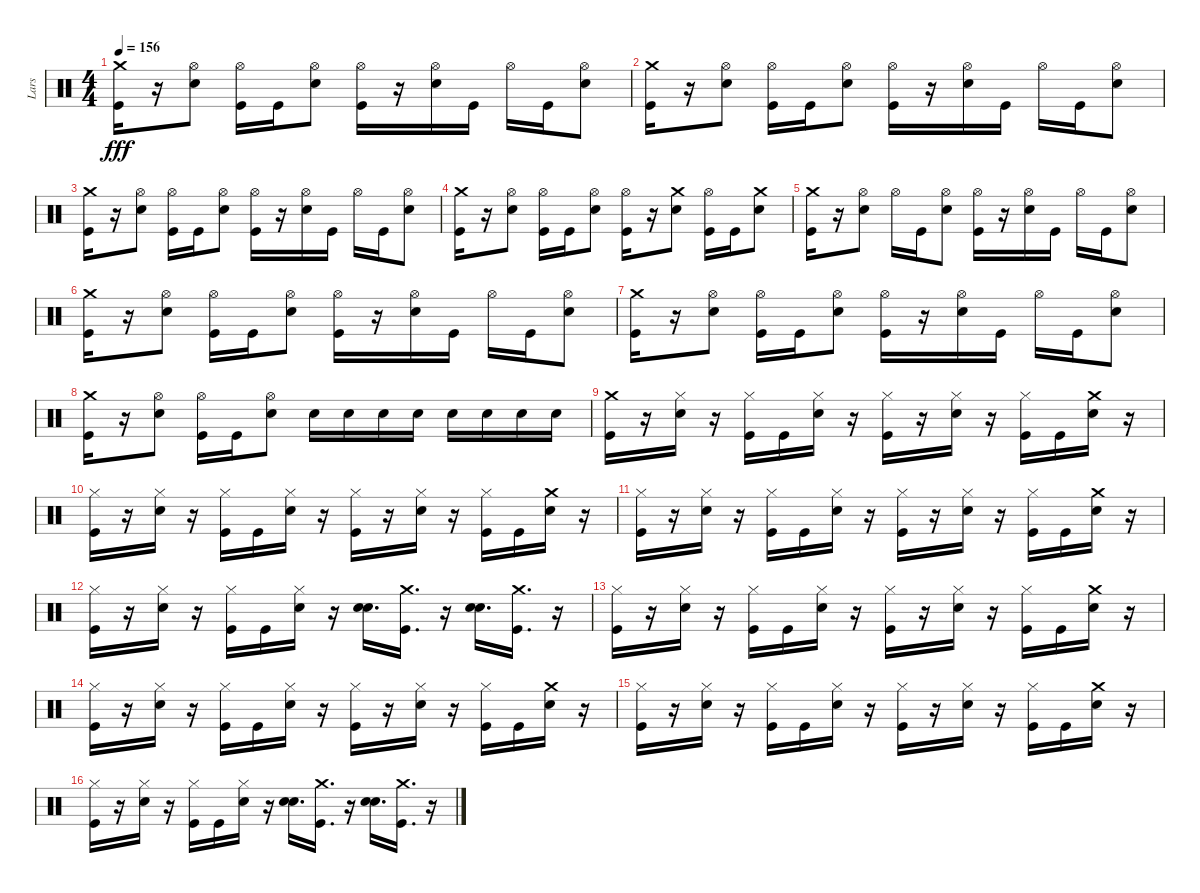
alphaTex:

\track ("Lars" "Lars") {instrument percussion bank 102}
\staff {score}
\articulation defaults
\ts (4 4)
\tempo 156
\clef neutral
\ks c
("Kick (hit)" "Crash medium (hit)").16{dy fff} r.16 ("Snare (hit) 2" "Hi-Hat (open)").8 ("Kick (hit)" "Hi-Hat (open)").16 "Kick (hit)".16 ("Snare (hit) 2" "Hi-Hat (open)").8 ("Kick (hit)" "Hi-Hat (open)").16 r.16 ("Snare (hit) 2" "Hi-Hat (open)").16 "Kick (hit)".16 "Hi-Hat (open)".16 "Kick (hit)".16 ("Snare (hit) 2" "Hi-Hat (open)").8 |
("Kick (hit)" "Crash medium (hit)").16 r.16 ("Snare (hit) 2" "Hi-Hat (open)").8 ("Kick (hit)" "Hi-Hat (open)").16 "Kick (hit)".16 ("Snare (hit) 2" "Hi-Hat (open)").8 ("Kick (hit)" "Hi-Hat (open)").16 r.16 ("Snare (hit) 2" "Hi-Hat (open)").16 "Kick (hit)".16 "Hi-Hat (open)".16 "Kick (hit)".16 ("Snare (hit) 2" "Hi-Hat (open)").8 |
("Kick (hit)" "Crash medium (hit)").16 r.16 ("Snare (hit) 2" "Hi-Hat (open)").8 ("Kick (hit)" "Hi-Hat (open)").16 "Kick (hit)".16 ("Snare (hit) 2" "Hi-Hat (open)").8 ("Kick (hit)" "Hi-Hat (open)").16 r.16 ("Snare (hit) 2" "Hi-Hat (open)").16 "Kick (hit)".16 "Hi-Hat (open)".16 "Kick (hit)".16 ("Snare (hit) 2" "Hi-Hat (open)").8 |
("Kick (hit)" "Crash medium (hit)").16 r.16 ("Snare (hit) 2" "Hi-Hat (open)").8 ("Kick (hit)" "Hi-Hat (open)").16 "Kick (hit)".16 ("Snare (hit) 2" "Hi-Hat (open)").8 ("Kick (hit)" "Hi-Hat (open)").16 r.16 ("Crash medium (hit)" "Snare (hit) 2").8 ("Kick (hit)" "Hi-Hat (open)").16 "Kick (hit)".16 ("Crash medium (hit)" "Snare (hit) 2").8 |
("Kick (hit)" "Crash medium (hit)").16 r.16 ("Snare (hit) 2" "Hi-Hat (open)").8 "Hi-Hat (open)".16 "Kick (hit)".16 ("Snare (hit) 2" "Hi-Hat (open)").8 ("Kick (hit)" "Hi-Hat (open)").16 r.16 ("Snare (hit) 2" "Hi-Hat (open)").16 "Kick (hit)".16 "Hi-Hat (open)".16 "Kick (hit)".16 ("Snare (hit) 2" "Hi-Hat (open)").8 |
("Kick (hit)" "Crash medium (hit)").16 r.16 ("Snare (hit) 2" "Hi-Hat (open)").8 ("Kick (hit)" "Hi-Hat (open)").16 "Kick (hit)".16 ("Snare (hit) 2" "Hi-Hat (open)").8 ("Kick (hit)" "Hi-Hat (open)").16 r.16 ("Snare (hit) 2" "Hi-Hat (open)").16 "Kick (hit)".16 "Hi-Hat (open)".16 "Kick (hit)".16 ("Snare (hit) 2" "Hi-Hat (open)").8 |
("Kick (hit)" "Crash medium (hit)").16 r.16 ("Snare (hit) 2" "Hi-Hat (open)").8 ("Kick (hit)" "Hi-Hat (open)").16 "Kick (hit)".16 ("Snare (hit) 2" "Hi-Hat (open)").8 ("Kick (hit)" "Hi-Hat (open)").16 r.16 ("Snare (hit) 2" "Hi-Hat (open)").16 "Kick (hit)".16 "Hi-Hat (open)".16 "Kick (hit)".16 ("Snare (hit) 2" "Hi-Hat (open)").8 |
("Kick (hit)" "Crash medium (hit)").16 r.16 ("Snare (hit) 2" "Hi-Hat (open)").8 ("Kick (hit)" "Hi-Hat (open)").16 "Kick (hit)".16 ("Snare (hit) 2" "Hi-Hat (open)").8 "Snare (hit) 2".16 "Snare (hit) 2".16 "Snare (hit) 2".16 "Snare (hit) 2".16 "Snare (hit) 2".16 "Snare (hit) 2".16 "Snare (hit) 2".16 "Snare (hit) 2".16 |
("Crash medium (hit)" "Kick (hit)").16 r.16 ("Snare (hit) 2" "Hi-Hat (closed)").16 r.16 ("Kick (hit)" "Hi-Hat (closed)").16 "Kick (hit)".16 ("Snare (hit) 2" "Hi-Hat (closed)").16 r.16 ("Hi-Hat (closed)" "Kick (hit)").16 r.16 ("Snare (hit) 2" "Hi-Hat (closed)").16 r.16 ("Hi-Hat (closed)" "Kick (hit)").16 "Kick (hit)".16 ("Crash medium (hit)" "Snare (hit) 2").16 r.16 |
("Hi-Hat (closed)" "Kick (hit)").16 r.16 ("Hi-Hat (closed)" "Snare (hit) 2").16 r.16 ("Hi-Hat (closed)" "Kick (hit)").16 "Kick (hit)".16 ("Hi-Hat (closed)" "Snare (hit) 2").16 r.16 ("Hi-Hat (closed)" "Kick (hit)").16 r.16 ("Hi-Hat (closed)" "Snare (hit) 2").16 r.16 ("Hi-Hat (closed)" "Kick (hit)").16 "Kick (hit)".16 ("Crash medium (hit)" "Snare (hit) 2").16 r.16 |
("Hi-Hat (closed)" "Kick (hit)").16 r.16 ("Hi-Hat (closed)" "Snare (hit) 2").16 r.16 ("Hi-Hat (closed)" "Kick (hit)").16 "Kick (hit)".16 ("Hi-Hat (closed)" "Snare (hit) 2").16 r.16 ("Hi-Hat (closed)" "Kick (hit)").16 r.16 ("Hi-Hat (closed)" "Snare (hit) 2").16 r.16 ("Hi-Hat (closed)" "Kick (hit)").16 "Kick (hit)".16 ("Crash medium (hit)" "Snare (hit) 2").16 r.16 |
("Hi-Hat (closed)" "Kick (hit)").16 r.16 ("Hi-Hat (closed)" "Snare (hit) 2").16 r.16 ("Hi-Hat (closed)" "Kick (hit)").16 "Kick (hit)".16 ("Hi-Hat (closed)" "Snare (hit) 2").16 r.16 ("Snare (hit) 2" "Snare (hit) 2").16{d} ("Crash medium (hit)" "Kick (hit)").16{d} r.16 ("Snare (hit) 2" "Snare (hit) 2").16{d} ("Crash medium (hit)" "Kick (hit)").16{d} r.16 |
("Hi-Hat (closed)" "Kick (hit)").16 r.16 ("Hi-Hat (closed)" "Snare (hit) 2").16 r.16 ("Hi-Hat (closed)" "Kick (hit)").16 "Kick (hit)".16 ("Hi-Hat (closed)" "Snare (hit) 2").16 r.16 ("Hi-Hat (closed)" "Kick (hit)").16 r.16 ("Hi-Hat (closed)" "Snare (hit) 2").16 r.16 ("Hi-Hat (closed)" "Kick (hit)").16 "Kick (hit)".16 ("Crash medium (hit)" "Snare (hit) 2").16 r.16 |
("Hi-Hat (closed)" "Kick (hit)").16 r.16 ("Hi-Hat (closed)" "Snare (hit) 2").16 r.16 ("Hi-Hat (closed)" "Kick (hit)").16 "Kick (hit)".16 ("Hi-Hat (closed)" "Snare (hit) 2").16 r.16 ("Hi-Hat (closed)" "Kick (hit)").16 r.16 ("Hi-Hat (closed)" "Snare (hit) 2").16 r.16 ("Hi-Hat (closed)" "Kick (hit)").16 "Kick (hit)".16 ("Crash medium (hit)" "Snare (hit) 2").16 r.16 |
("Hi-Hat (closed)" "Kick (hit)").16 r.16 ("Hi-Hat (closed)" "Snare (hit) 2").16 r.16 ("Hi-Hat (closed)" "Kick (hit)").16 "Kick (hit)".16 ("Hi-Hat (closed)" "Snare (hit) 2").16 r.16 ("Hi-Hat (closed)" "Kick (hit)").16 r.16 ("Hi-Hat (closed)" "Snare (hit) 2").16 r.16 ("Hi-Hat (closed)" "Kick (hit)").16 "Kick (hit)".16 ("Crash medium (hit)" "Snare (hit) 2").16 r.16 |
("Hi-Hat (closed)" "Kick (hit)").16 r.16 ("Hi-Hat (closed)" "Snare (hit) 2").16 r.16 ("Hi-Hat (closed)" "Kick (hit)").16 "Kick (hit)".16 ("Hi-Hat (closed)" "Snare (hit) 2").16 r.16 ("Snare (hit) 2" "Snare (hit) 2").16{d} ("Crash medium (hit)" "Kick (hit)").16{d} r.16 ("Snare (hit) 2" "Snare (hit) 2").16{d} ("Crash medium (hit)" "Kick (hit)").16{d} r.16
